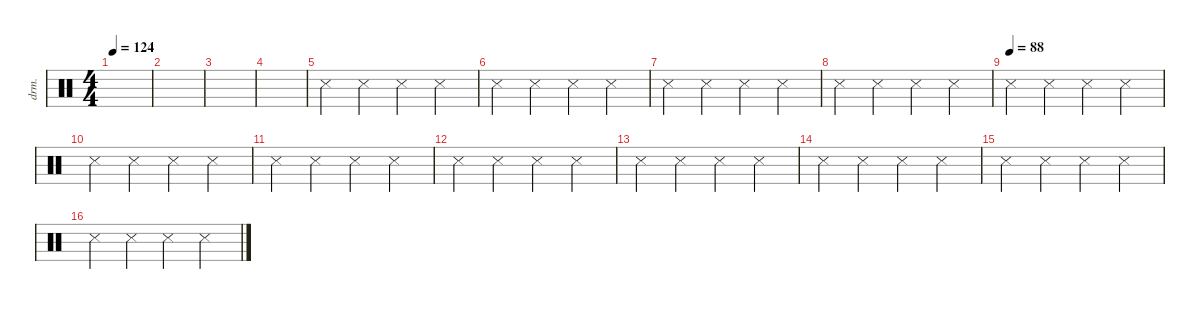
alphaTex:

\defaultSystemsLayout 4
\hideDynamics
\bracketExtendMode nobrackets
\otherSystemsTrackNameOrientation horizontal
\track ("Drumkit" "drm.") {instrument percussion}
\staff {score}
\articulation defaults
\ts (4 4)
\tempo 124
\clef neutral
\ks c
|
|
|
|
"Metronome (hit)".4 "Metronome (hit)".4 "Metronome (hit)".4 "Metronome (hit)".4 |
"Metronome (hit)".4 "Metronome (hit)".4 "Metronome (hit)".4 "Metronome (hit)".4 |
"Metronome (hit)".4 "Metronome (hit)".4 "Metronome (hit)".4 "Metronome (hit)".4 |
"Metronome (hit)".4 "Metronome (hit)".4 "Metronome (hit)".4 "Metronome (hit)".4 |
\tempo (88)
"Metronome (hit)".4 "Metronome (hit)".4 "Metronome (hit)".4 "Metronome (hit)".4 |
"Metronome (hit)".4 "Metronome (hit)".4 "Metronome (hit)".4 "Metronome (hit)".4 |
"Metronome (hit)".4 "Metronome (hit)".4 "Metronome (hit)".4 "Metronome (hit)".4 |
"Metronome (hit)".4 "Metronome (hit)".4 "Metronome (hit)".4 "Metronome (hit)".4 |
"Metronome (hit)".4 "Metronome (hit)".4 "Metronome (hit)".4 "Metronome (hit)".4 |
"Metronome (hit)".4 "Metronome (hit)".4 "Metronome (hit)".4 "Metronome (hit)".4 |
"Metronome (hit)".4 "Metronome (hit)".4 "Metronome (hit)".4 "Metronome (hit)".4 |
"Metronome (hit)".4 "Metronome (hit)".4 "Metronome (hit)".4 "Metronome (hit)".4
